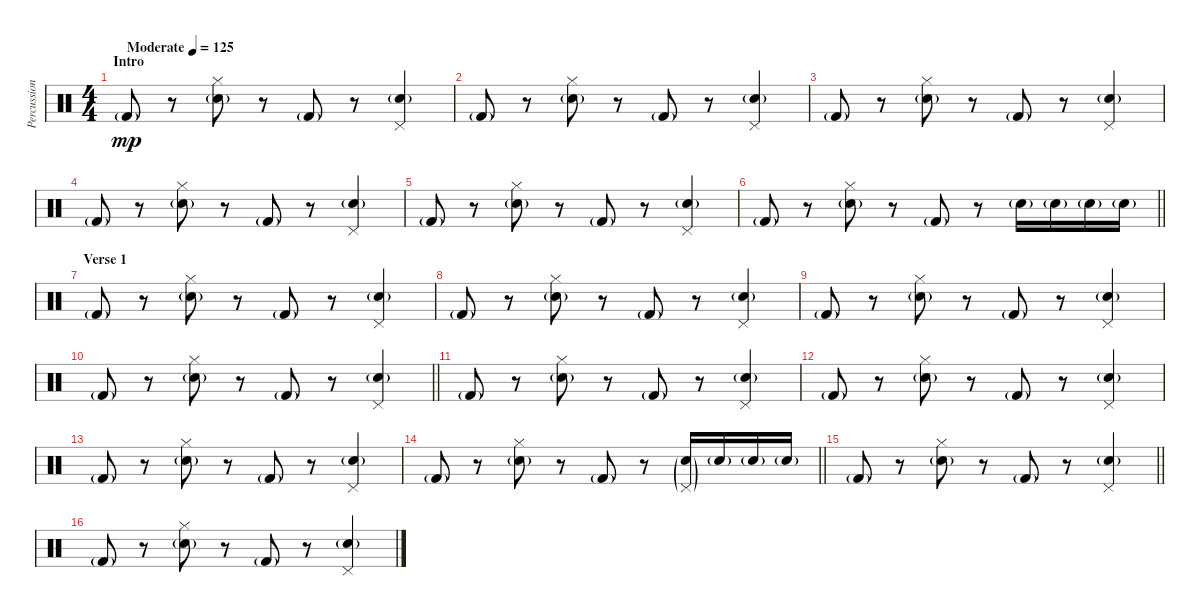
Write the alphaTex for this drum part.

\track ("Percussion" "Percussion") {instrument percussion}
\staff {score}
\articulation defaults
\ts (4 4)
\section ("" "Intro")
\tempo (125 "Moderate")
\clef neutral
\ks c "Kick (hit) 2"{g}.8{dy mp}
r.8 ("Electric Snare (hit)"{g} "Hi-Hat (closed)").8 r.8 "Kick (hit) 2"{g}.8 r.8 ("Electric Snare (hit)"{g} "Pedal Hi-Hat (hit)").4 |
"Kick (hit) 2"{g}.8 r.8 ("Electric Snare (hit)"{g} "Hi-Hat (closed)").8 r.8 "Kick (hit) 2"{g}.8 r.8 ("Electric Snare (hit)"{g} "Pedal Hi-Hat (hit)").4 |
"Kick (hit) 2"{g}.8 r.8 ("Electric Snare (hit)"{g} "Hi-Hat (closed)").8 r.8 "Kick (hit) 2"{g}.8 r.8 ("Electric Snare (hit)"{g} "Pedal Hi-Hat (hit)").4 |
"Kick (hit) 2"{g}.8 r.8 ("Electric Snare (hit)"{g} "Hi-Hat (closed)").8 r.8 "Kick (hit) 2"{g}.8 r.8 ("Electric Snare (hit)"{g} "Pedal Hi-Hat (hit)").4 |
"Kick (hit) 2"{g}.8 r.8 ("Electric Snare (hit)"{g} "Hi-Hat (closed)").8 r.8 "Kick (hit) 2"{g}.8 r.8 ("Electric Snare (hit)"{g} "Pedal Hi-Hat (hit)").4 |
\barLineRight lightlight "Kick (hit) 2"{g}.8
r.8 ("Electric Snare (hit)"{g} "Hi-Hat (closed)").8 r.8 "Kick (hit) 2"{g}.8 r.8 "Electric Snare (hit)"{g}.16 "Electric Snare (hit)"{g}.16 "Electric Snare (hit)"{g}.16 "Electric Snare (hit)"{g}.16 |
\section ("" "Verse 1")
"Kick (hit) 2"{g}.8 r.8 ("Electric Snare (hit)"{g} "Hi-Hat (closed)").8 r.8 "Kick (hit) 2"{g}.8 r.8 ("Electric Snare (hit)"{g} "Pedal Hi-Hat (hit)").4 |
"Kick (hit) 2"{g}.8 r.8 ("Electric Snare (hit)"{g} "Hi-Hat (closed)").8 r.8 "Kick (hit) 2"{g}.8 r.8 ("Electric Snare (hit)"{g} "Pedal Hi-Hat (hit)").4 |
"Kick (hit) 2"{g}.8 r.8 ("Electric Snare (hit)"{g} "Hi-Hat (closed)").8 r.8 "Kick (hit) 2"{g}.8 r.8 ("Electric Snare (hit)"{g} "Pedal Hi-Hat (hit)").4 |
\barLineRight lightlight "Kick (hit) 2"{g}.8
r.8 ("Electric Snare (hit)"{g} "Hi-Hat (closed)").8 r.8 "Kick (hit) 2"{g}.8 r.8 ("Electric Snare (hit)"{g} "Pedal Hi-Hat (hit)").4 |
"Kick (hit) 2"{g}.8 r.8 ("Electric Snare (hit)"{g} "Hi-Hat (closed)").8 r.8 "Kick (hit) 2"{g}.8 r.8 ("Electric Snare (hit)"{g} "Pedal Hi-Hat (hit)").4 |
"Kick (hit) 2"{g}.8 r.8 ("Electric Snare (hit)"{g} "Hi-Hat (closed)").8 r.8 "Kick (hit) 2"{g}.8 r.8 ("Electric Snare (hit)"{g} "Pedal Hi-Hat (hit)").4 |
"Kick (hit) 2"{g}.8 r.8 ("Electric Snare (hit)"{g} "Hi-Hat (closed)").8 r.8 "Kick (hit) 2"{g}.8 r.8 ("Electric Snare (hit)"{g} "Pedal Hi-Hat (hit)").4 |
\barLineRight lightlight "Kick (hit) 2"{g}.8
r.8 ("Electric Snare (hit)"{g} "Hi-Hat (closed)").8 r.8 "Kick (hit) 2"{g}.8 r.8 ("Electric Snare (hit)"{g} "Pedal Hi-Hat (hit)"{g}).16 "Electric Snare (hit)"{g}.16 "Electric Snare (hit)"{g}.16 "Electric Snare (hit)"{g}.16 |
\section ("" "")
\barLineRight lightlight "Kick (hit) 2"{g}.8
r.8 ("Electric Snare (hit)"{g} "Hi-Hat (closed)").8 r.8 "Kick (hit) 2"{g}.8 r.8 ("Electric Snare (hit)"{g} "Pedal Hi-Hat (hit)").4 |
\section ("" "")
"Kick (hit) 2"{g}.8 r.8 ("Electric Snare (hit)"{g} "Hi-Hat (closed)").8 r.8 "Kick (hit) 2"{g}.8 r.8 ("Electric Snare (hit)"{g} "Pedal Hi-Hat (hit)").4
